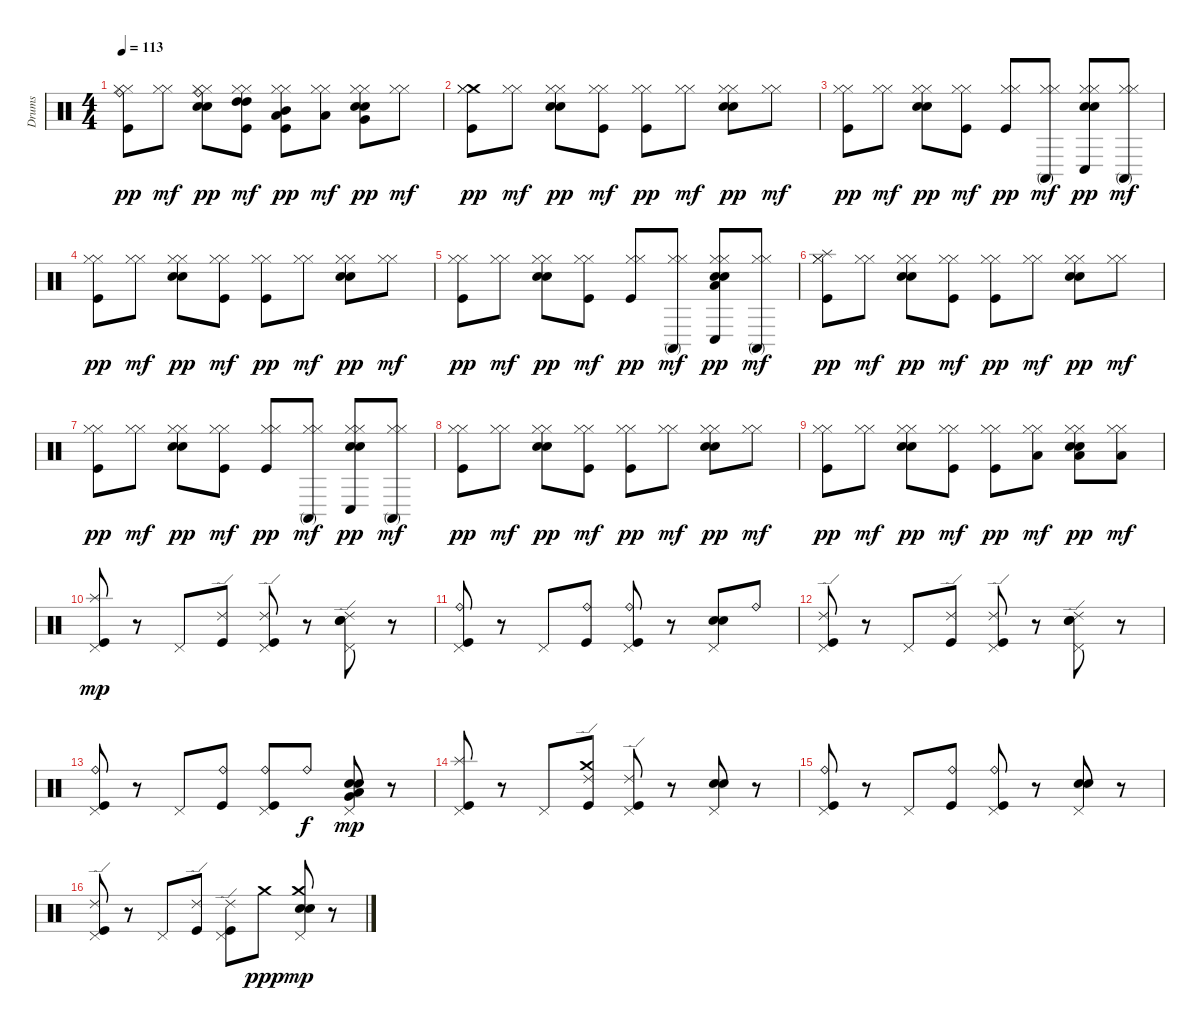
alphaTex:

\track ("Drums" "Drums") {instrument percussion}
\staff {score}
\articulation defaults
\ts (4 4)
\tempo 113
\clef neutral
\ks c
("Ride (bell)" "Kick (hit)" "Hi-Hat (closed)" "Hi-Hat (closed)").8{dy pp} ("Hi-Hat (closed)" "Hi-Hat (closed)").8{dy mf} ("Ride (bell)" "Snare (hit) 2" "Electric Snare (hit)" "Hi-Hat (closed)" "Hi-Hat (closed)").8{dy pp} ("High Tom (hit)" "Kick (hit)" "Hi-Hat (closed)" "High Tom (hit)" "Hi-Hat (closed)").8{dy mf} ("Low Tom (hit)" "Kick (hit)" "Hi-Hat (closed)" "Mid Tom (hit)" "Hi-Hat (closed)").8{dy pp} ("Low Tom (hit)" "Hi-Hat (closed)" "Hi-Hat (closed)").8{dy mf} ("Very Low Tom (hit)" "Snare (hit) 2" "Electric Snare (hit)" "Hi-Hat (closed)" "Hi-Hat (closed)").8{dy pp} ("Hi-Hat (closed)" "Hi-Hat (closed)").8{dy mf} |
("Crash medium (hit)" "Kick (hit)" "Hi-Hat (closed)" "Hi-Hat (closed)").8{dy pp} ("Hi-Hat (closed)" "Hi-Hat (closed)").8{dy mf} ("Snare (hit) 2" "Electric Snare (hit)" "Hi-Hat (closed)" "Hi-Hat (closed)").8{dy pp} ("Kick (hit)" "Hi-Hat (closed)" "Hi-Hat (closed)").8{dy mf} ("Kick (hit)" "Hi-Hat (closed)" "Hi-Hat (closed)").8{dy pp} ("Hi-Hat (closed)" "Hi-Hat (closed)").8{dy mf} ("Snare (hit) 2" "Electric Snare (hit)" "Hi-Hat (closed)" "Hi-Hat (closed)").8{dy pp} ("Hi-Hat (closed)" "Hi-Hat (closed)").8{dy mf} |
("Kick (hit)" "Hi-Hat (closed)" "Hi-Hat (closed)").8{dy pp} ("Hi-Hat (closed)" "Hi-Hat (closed)").8{dy mf} ("Snare (hit) 2" "Electric Snare (hit)" "Hi-Hat (closed)" "Hi-Hat (closed)").8{dy pp} ("Kick (hit)" "Hi-Hat (closed)" "Hi-Hat (closed)").8{dy mf} ("Kick (hit)" "Hi-Hat (closed)" "Hi-Hat (closed)").8{dy pp} ("Conga high (mute)" "Hi-Hat (closed)" "Hi-Hat (closed)").8{dy mf} ("Conga low (hit)" "Snare (hit) 2" "Electric Snare (hit)" "Hi-Hat (closed)" "Hi-Hat (closed)").8{dy pp} ("Conga high (mute)" "Hi-Hat (closed)" "Hi-Hat (closed)").8{dy mf} |
("Kick (hit)" "Hi-Hat (closed)" "Hi-Hat (closed)").8{dy pp} ("Hi-Hat (closed)" "Hi-Hat (closed)").8{dy mf} ("Snare (hit) 2" "Electric Snare (hit)" "Hi-Hat (closed)" "Hi-Hat (closed)").8{dy pp} ("Kick (hit)" "Hi-Hat (closed)" "Hi-Hat (closed)").8{dy mf} ("Kick (hit)" "Hi-Hat (closed)" "Hi-Hat (closed)").8{dy pp} ("Hi-Hat (closed)" "Hi-Hat (closed)").8{dy mf} ("Snare (hit) 2" "Electric Snare (hit)" "Hi-Hat (closed)" "Hi-Hat (closed)").8{dy pp} ("Hi-Hat (closed)" "Hi-Hat (closed)").8{dy mf} |
("Kick (hit)" "Hi-Hat (closed)" "Hi-Hat (closed)").8{dy pp} ("Hi-Hat (closed)" "Hi-Hat (closed)").8{dy mf} ("Snare (hit) 2" "Electric Snare (hit)" "Hi-Hat (closed)" "Hi-Hat (closed)").8{dy pp} ("Kick (hit)" "Hi-Hat (closed)" "Hi-Hat (closed)").8{dy mf} ("Kick (hit)" "Hi-Hat (closed)" "Hi-Hat (closed)").8{dy pp} ("Conga high (mute)" "Hi-Hat (closed)" "Hi-Hat (closed)").8{dy mf} ("Low Tom (hit)" "Conga low (hit)" "Snare (hit) 2" "Electric Snare (hit)" "Hi-Hat (closed)" "Hi-Hat (closed)").8{dy pp} ("Conga high (mute)" "Hi-Hat (closed)" "Hi-Hat (closed)").8{dy mf} |
("Splash (hit)" "Kick (hit)" "Hi-Hat (closed)" "Hi-Hat (closed)").8{dy pp} ("Hi-Hat (closed)" "Hi-Hat (closed)").8{dy mf} ("Snare (hit) 2" "Electric Snare (hit)" "Hi-Hat (closed)" "Hi-Hat (closed)").8{dy pp} ("Kick (hit)" "Hi-Hat (closed)" "Hi-Hat (closed)").8{dy mf} ("Kick (hit)" "Hi-Hat (closed)" "Hi-Hat (closed)").8{dy pp} ("Hi-Hat (closed)" "Hi-Hat (closed)").8{dy mf} ("Snare (hit) 2" "Electric Snare (hit)" "Hi-Hat (closed)" "Hi-Hat (closed)").8{dy pp} ("Hi-Hat (closed)" "Hi-Hat (closed)").8{dy mf} |
("Kick (hit)" "Hi-Hat (closed)" "Hi-Hat (closed)").8{dy pp} ("Hi-Hat (closed)" "Hi-Hat (closed)").8{dy mf} ("Snare (hit) 2" "Electric Snare (hit)" "Hi-Hat (closed)" "Hi-Hat (closed)").8{dy pp} ("Kick (hit)" "Hi-Hat (closed)" "Hi-Hat (closed)").8{dy mf} ("Kick (hit)" "Hi-Hat (closed)" "Hi-Hat (closed)").8{dy pp} ("Conga high (mute)" "Hi-Hat (closed)" "Hi-Hat (closed)").8{dy mf} ("Conga low (hit)" "Snare (hit) 2" "Electric Snare (hit)" "Hi-Hat (closed)" "Hi-Hat (closed)").8{dy pp} ("Conga high (mute)" "Hi-Hat (closed)" "Hi-Hat (closed)").8{dy mf} |
("Kick (hit)" "Hi-Hat (closed)" "Hi-Hat (closed)").8{dy pp} ("Hi-Hat (closed)" "Hi-Hat (closed)").8{dy mf} ("Snare (hit) 2" "Electric Snare (hit)" "Hi-Hat (closed)" "Hi-Hat (closed)").8{dy pp} ("Kick (hit)" "Hi-Hat (closed)" "Hi-Hat (closed)").8{dy mf} ("Kick (hit)" "Hi-Hat (closed)" "Hi-Hat (closed)").8{dy pp} ("Hi-Hat (closed)" "Hi-Hat (closed)").8{dy mf} ("Snare (hit) 2" "Electric Snare (hit)" "Hi-Hat (closed)" "Hi-Hat (closed)").8{dy pp} ("Hi-Hat (closed)" "Hi-Hat (closed)").8{dy mf} |
("Kick (hit)" "Hi-Hat (closed)" "Hi-Hat (closed)").8{dy pp} ("Hi-Hat (closed)" "Hi-Hat (closed)").8{dy mf} ("Snare (hit) 2" "Electric Snare (hit)" "Hi-Hat (closed)" "Hi-Hat (closed)").8{dy pp} ("Kick (hit)" "Hi-Hat (closed)" "Hi-Hat (closed)").8{dy mf} ("Kick (hit)" "Hi-Hat (closed)" "Hi-Hat (closed)").8{dy pp} ("Low Tom (hit)" "Hi-Hat (closed)" "Hi-Hat (closed)").8{dy mf} ("Low Tom (hit)" "Snare (hit) 2" "Electric Snare (hit)" "Hi-Hat (closed)" "Hi-Hat (closed)").8{dy pp} ("Low Tom (hit)" "Hi-Hat (closed)" "Hi-Hat (closed)").8{dy mf} |
("Splash (hit)" "Kick (hit)" "Pedal Hi-Hat (hit)").8{dy mp} r.8 "Pedal Hi-Hat (hit)".8 ("Ride (edge) 2" "Kick (hit)").8 ("Ride (edge) 2" "Kick (hit)" "Pedal Hi-Hat (hit)").8 r.8 ("Ride (edge) 2" "Snare (hit) 2" "Electric Snare (hit)" "Pedal Hi-Hat (hit)").8 r.8 |
("Ride (bell)" "Kick (hit)" "Pedal Hi-Hat (hit)").8 r.8 "Pedal Hi-Hat (hit)".8 ("Ride (bell)" "Kick (hit)").8 ("Ride (bell)" "Kick (hit)" "Pedal Hi-Hat (hit)").8 r.8 ("Snare (hit) 2" "Electric Snare (hit)" "Pedal Hi-Hat (hit)").8 "Ride (bell)".8 |
("Ride (edge) 2" "Kick (hit)" "Pedal Hi-Hat (hit)").8 r.8 "Pedal Hi-Hat (hit)".8 ("Ride (edge) 2" "Kick (hit)").8 ("Ride (edge) 2" "Kick (hit)" "Pedal Hi-Hat (hit)").8 r.8 ("Ride (edge) 2" "Snare (hit) 2" "Electric Snare (hit)" "Pedal Hi-Hat (hit)").8 r.8 |
("Ride (bell)" "Kick (hit)" "Pedal Hi-Hat (hit)").8 r.8 "Pedal Hi-Hat (hit)".8 ("Ride (bell)" "Kick (hit)").8 ("Ride (bell)" "Kick (hit)" "Pedal Hi-Hat (hit)").8 "Ride (bell)".8{dy f} ("Very Low Tom (hit)" "Low Tom (hit)" "Snare (hit) 2" "Electric Snare (hit)" "Pedal Hi-Hat (hit)").8{dy mp} r.8 |
("Splash (hit)" "Kick (hit)" "Pedal Hi-Hat (hit)").8 r.8 "Pedal Hi-Hat (hit)".8 ("Ride (edge) 2" "Crash medium (hit)" "Kick (hit)").8 ("Ride (edge) 2" "Kick (hit)" "Pedal Hi-Hat (hit)").8 r.8 ("Snare (hit) 2" "Electric Snare (hit)" "Pedal Hi-Hat (hit)").8 r.8 |
("Ride (bell)" "Kick (hit)" "Pedal Hi-Hat (hit)").8 r.8 "Pedal Hi-Hat (hit)".8 ("Ride (bell)" "Kick (hit)").8 ("Ride (bell)" "Kick (hit)" "Pedal Hi-Hat (hit)").8 r.8 ("Snare (hit) 2" "Electric Snare (hit)" "Pedal Hi-Hat (hit)").8 r.8 |
("Ride (edge) 2" "Kick (hit)" "Pedal Hi-Hat (hit)").8 r.8 "Pedal Hi-Hat (hit)".8 ("Ride (edge) 2" "Kick (hit)").8 ("Ride (edge) 2" "Kick (hit)" "Pedal Hi-Hat (hit)").8 "Crash medium (hit)".8{dy ppp} ("Crash medium (hit)" "Snare (hit) 2" "Electric Snare (hit)" "Pedal Hi-Hat (hit)").8{dy mp} r.8
